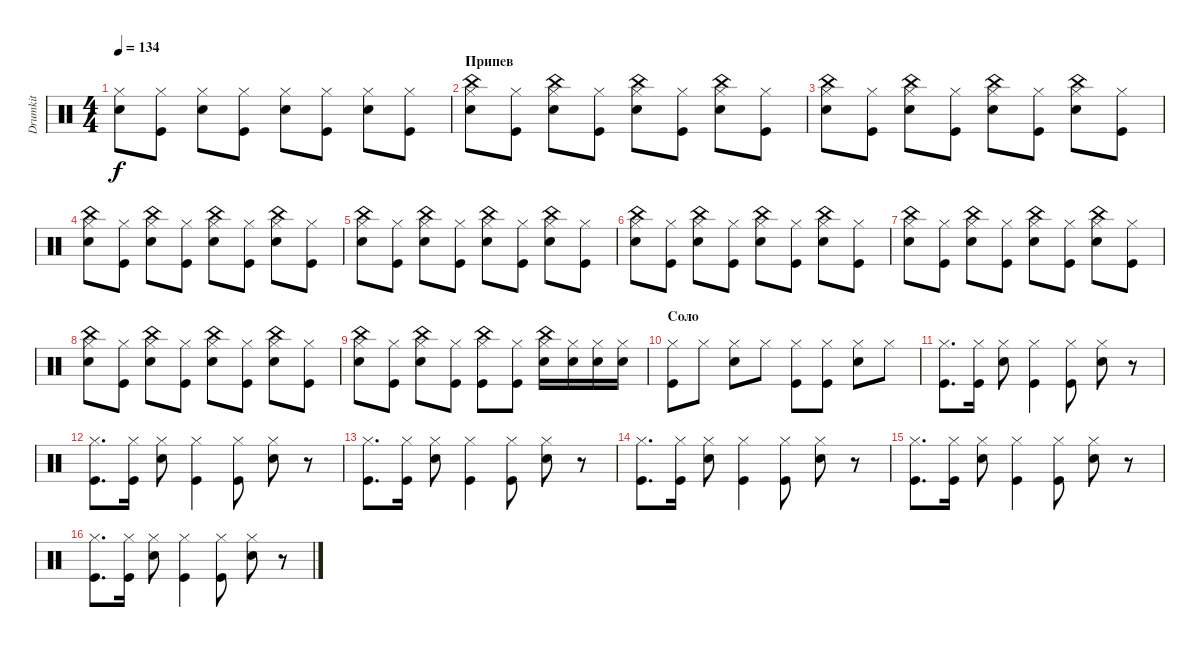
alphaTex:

\track ("Drumkit" "Drumkit") {instrument percussion}
\staff {score}
\articulation defaults
\ts (4 4)
\tempo 134
\clef neutral
\ks c
("Snare (hit) 2" "Hi-Hat (closed)").8{dy f} ("Kick (hit)" "Hi-Hat (closed)").8 ("Snare (hit) 2" "Hi-Hat (closed)").8 ("Kick (hit)" "Hi-Hat (closed)").8 ("Snare (hit) 2" "Hi-Hat (closed)").8 ("Kick (hit)" "Hi-Hat (closed)").8 ("Snare (hit) 2" "Hi-Hat (closed)").8 ("Kick (hit)" "Hi-Hat (closed)").8 |
\section ("" "Припев")
("Snare (hit) 2" "Hi-Hat (closed)" "China (hit)").8 ("Kick (hit)" "Hi-Hat (closed)").8 ("Snare (hit) 2" "Hi-Hat (closed)" "China (hit)").8 ("Kick (hit)" "Hi-Hat (closed)").8 ("Snare (hit) 2" "Hi-Hat (closed)" "China (hit)").8 ("Kick (hit)" "Hi-Hat (closed)").8 ("Snare (hit) 2" "Hi-Hat (closed)" "China (hit)").8 ("Kick (hit)" "Hi-Hat (closed)").8 |
("Snare (hit) 2" "Hi-Hat (closed)" "China (hit)").8 ("Kick (hit)" "Hi-Hat (closed)").8 ("Snare (hit) 2" "Hi-Hat (closed)" "China (hit)").8 ("Kick (hit)" "Hi-Hat (closed)").8 ("Snare (hit) 2" "Hi-Hat (closed)" "China (hit)").8 ("Kick (hit)" "Hi-Hat (closed)").8 ("Snare (hit) 2" "Hi-Hat (closed)" "China (hit)").8 ("Kick (hit)" "Hi-Hat (closed)").8 |
("Snare (hit) 2" "Hi-Hat (closed)" "China (hit)").8 ("Kick (hit)" "Hi-Hat (closed)").8 ("Snare (hit) 2" "Hi-Hat (closed)" "China (hit)").8 ("Kick (hit)" "Hi-Hat (closed)").8 ("Snare (hit) 2" "Hi-Hat (closed)" "China (hit)").8 ("Kick (hit)" "Hi-Hat (closed)").8 ("Snare (hit) 2" "Hi-Hat (closed)" "China (hit)").8 ("Kick (hit)" "Hi-Hat (closed)").8 |
("Snare (hit) 2" "Hi-Hat (closed)" "China (hit)").8 ("Kick (hit)" "Hi-Hat (closed)").8 ("Snare (hit) 2" "Hi-Hat (closed)" "China (hit)").8 ("Kick (hit)" "Hi-Hat (closed)").8 ("Snare (hit) 2" "Hi-Hat (closed)" "China (hit)").8 ("Kick (hit)" "Hi-Hat (closed)").8 ("Snare (hit) 2" "Hi-Hat (closed)" "China (hit)").8 ("Kick (hit)" "Hi-Hat (closed)").8 |
("Snare (hit) 2" "Hi-Hat (closed)" "China (hit)").8 ("Kick (hit)" "Hi-Hat (closed)").8 ("Snare (hit) 2" "Hi-Hat (closed)" "China (hit)").8 ("Kick (hit)" "Hi-Hat (closed)").8 ("Snare (hit) 2" "Hi-Hat (closed)" "China (hit)").8 ("Kick (hit)" "Hi-Hat (closed)").8 ("Snare (hit) 2" "Hi-Hat (closed)" "China (hit)").8 ("Kick (hit)" "Hi-Hat (closed)").8 |
("Snare (hit) 2" "Hi-Hat (closed)" "China (hit)").8 ("Kick (hit)" "Hi-Hat (closed)").8 ("Snare (hit) 2" "Hi-Hat (closed)" "China (hit)").8 ("Kick (hit)" "Hi-Hat (closed)").8 ("Snare (hit) 2" "Hi-Hat (closed)" "China (hit)").8 ("Kick (hit)" "Hi-Hat (closed)").8 ("Snare (hit) 2" "Hi-Hat (closed)" "China (hit)").8 ("Kick (hit)" "Hi-Hat (closed)").8 |
("Snare (hit) 2" "Hi-Hat (closed)" "China (hit)").8 ("Kick (hit)" "Hi-Hat (closed)").8 ("Snare (hit) 2" "Hi-Hat (closed)" "China (hit)").8 ("Kick (hit)" "Hi-Hat (closed)").8 ("Snare (hit) 2" "Hi-Hat (closed)" "China (hit)").8 ("Kick (hit)" "Hi-Hat (closed)").8 ("Snare (hit) 2" "Hi-Hat (closed)" "China (hit)").8 ("Kick (hit)" "Hi-Hat (closed)").8 |
("Snare (hit) 2" "Hi-Hat (closed)" "China (hit)").8 ("Kick (hit)" "Hi-Hat (closed)").8 ("Snare (hit) 2" "Hi-Hat (closed)" "China (hit)").8 ("Kick (hit)" "Hi-Hat (closed)").8 ("Hi-Hat (closed)" "China (hit)" "Kick (hit)").8 ("Kick (hit)" "Hi-Hat (closed)").8 ("Snare (hit) 2" "Hi-Hat (closed)" "China (hit)").16 ("Hi-Hat (closed)" "Snare (hit) 2").16 ("Snare (hit) 2" "Hi-Hat (closed)").16 ("Snare (hit) 2" "Hi-Hat (closed)").16 |
\section ("" "Соло")
("Kick (hit)" "Hi-Hat (closed)").8 "Hi-Hat (closed)".8 ("Snare (hit) 2" "Hi-Hat (closed)").8 "Hi-Hat (closed)".8 ("Kick (hit)" "Hi-Hat (closed)").8 ("Kick (hit)" "Hi-Hat (closed)").8 ("Snare (hit) 2" "Hi-Hat (closed)").8 "Hi-Hat (closed)".8 |
("Kick (hit)" "Hi-Hat (closed)").8{d} ("Kick (hit)" "Hi-Hat (closed)").16 ("Snare (hit) 2" "Hi-Hat (closed)").8 ("Kick (hit)" "Hi-Hat (closed)").4 ("Kick (hit)" "Hi-Hat (closed)").8 ("Snare (hit) 2" "Hi-Hat (closed)").8 r.8 |
("Kick (hit)" "Hi-Hat (closed)").8{d} ("Kick (hit)" "Hi-Hat (closed)").16 ("Snare (hit) 2" "Hi-Hat (closed)").8 ("Kick (hit)" "Hi-Hat (closed)").4 ("Kick (hit)" "Hi-Hat (closed)").8 ("Snare (hit) 2" "Hi-Hat (closed)").8 r.8 |
("Kick (hit)" "Hi-Hat (closed)").8{d} ("Kick (hit)" "Hi-Hat (closed)").16 ("Snare (hit) 2" "Hi-Hat (closed)").8 ("Kick (hit)" "Hi-Hat (closed)").4 ("Kick (hit)" "Hi-Hat (closed)").8 ("Snare (hit) 2" "Hi-Hat (closed)").8 r.8 |
("Kick (hit)" "Hi-Hat (closed)").8{d} ("Kick (hit)" "Hi-Hat (closed)").16 ("Snare (hit) 2" "Hi-Hat (closed)").8 ("Kick (hit)" "Hi-Hat (closed)").4 ("Kick (hit)" "Hi-Hat (closed)").8 ("Snare (hit) 2" "Hi-Hat (closed)").8 r.8 |
("Kick (hit)" "Hi-Hat (closed)").8{d} ("Kick (hit)" "Hi-Hat (closed)").16 ("Snare (hit) 2" "Hi-Hat (closed)").8 ("Kick (hit)" "Hi-Hat (closed)").4 ("Kick (hit)" "Hi-Hat (closed)").8 ("Snare (hit) 2" "Hi-Hat (closed)").8 r.8 |
("Kick (hit)" "Hi-Hat (closed)").8{d} ("Kick (hit)" "Hi-Hat (closed)").16 ("Snare (hit) 2" "Hi-Hat (closed)").8 ("Kick (hit)" "Hi-Hat (closed)").4 ("Kick (hit)" "Hi-Hat (closed)").8 ("Snare (hit) 2" "Hi-Hat (closed)").8 r.8
